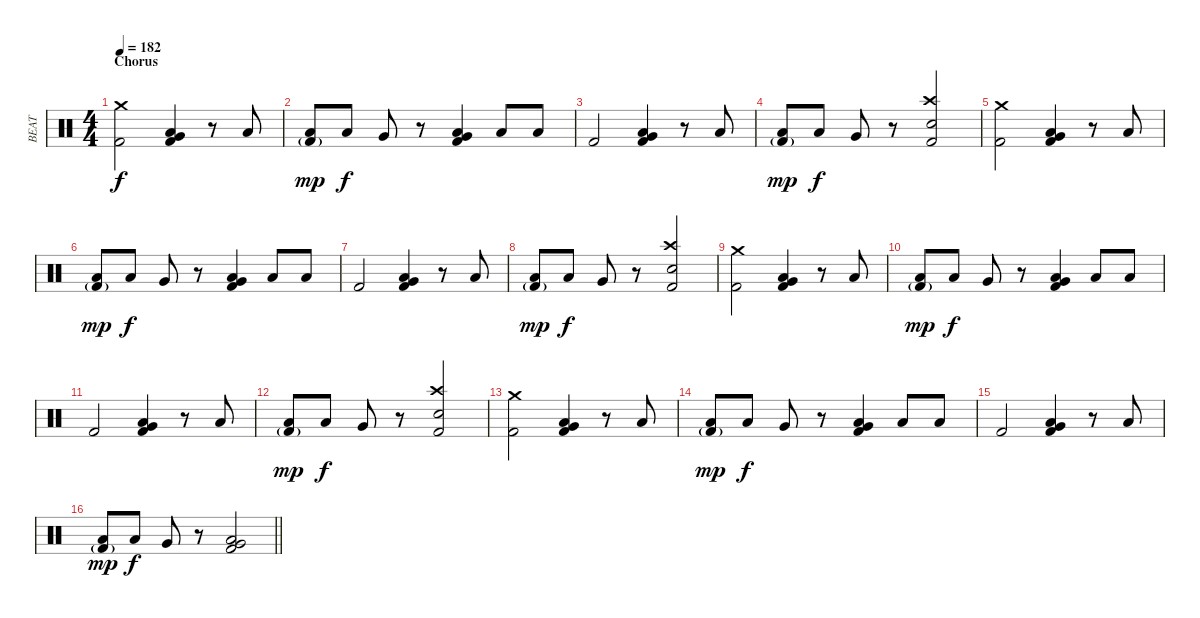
\track ("BEAT" "BEAT") {instrument percussion}
\staff {score}
\articulation defaults
\ts (4 4)
\section ("" "Chorus")
\tempo 182
\clef neutral
\ks c
("Crash medium (hit)" "Kick (hit) 2").2{dy f} ("Low Tom (hit)" "Very Low Tom (hit)" "Kick (hit) 2").4 r.8 "Low Tom (hit)".8 |
("Low Tom (hit)" "Kick (hit) 2"{g}).8{dy mp} "Low Tom (hit)".8{dy f} "Very Low Tom (hit)".8 r.8 ("Low Tom (hit)" "Very Low Tom (hit)" "Kick (hit) 2").4 "Low Tom (hit)".8 "Low Tom (hit)".8 |
"Kick (hit) 2".2 ("Low Tom (hit)" "Very Low Tom (hit)" "Kick (hit) 2").4 r.8 "Low Tom (hit)".8 |
("Low Tom (hit)" "Kick (hit) 2"{g}).8{dy mp} "Low Tom (hit)".8{dy f} "Very Low Tom (hit)".8 r.8 ("Crash high (hit)" "Electric Snare (hit)" "Kick (hit) 2").2 |
("Crash medium (hit)" "Kick (hit) 2").2 ("Low Tom (hit)" "Very Low Tom (hit)" "Kick (hit) 2").4 r.8 "Low Tom (hit)".8 |
("Low Tom (hit)" "Kick (hit) 2"{g}).8{dy mp} "Low Tom (hit)".8{dy f} "Very Low Tom (hit)".8 r.8 ("Low Tom (hit)" "Very Low Tom (hit)" "Kick (hit) 2").4 "Low Tom (hit)".8 "Low Tom (hit)".8 |
"Kick (hit) 2".2 ("Low Tom (hit)" "Very Low Tom (hit)" "Kick (hit) 2").4 r.8 "Low Tom (hit)".8 |
("Low Tom (hit)" "Kick (hit) 2"{g}).8{dy mp} "Low Tom (hit)".8{dy f} "Very Low Tom (hit)".8 r.8 ("Crash high (hit)" "Electric Snare (hit)" "Kick (hit) 2").2 |
("Crash medium (hit)" "Kick (hit) 2").2 ("Low Tom (hit)" "Very Low Tom (hit)" "Kick (hit) 2").4 r.8 "Low Tom (hit)".8 |
("Low Tom (hit)" "Kick (hit) 2"{g}).8{dy mp} "Low Tom (hit)".8{dy f} "Very Low Tom (hit)".8 r.8 ("Low Tom (hit)" "Very Low Tom (hit)" "Kick (hit) 2").4 "Low Tom (hit)".8 "Low Tom (hit)".8 |
"Kick (hit) 2".2 ("Low Tom (hit)" "Very Low Tom (hit)" "Kick (hit) 2").4 r.8 "Low Tom (hit)".8 |
("Low Tom (hit)" "Kick (hit) 2"{g}).8{dy mp} "Low Tom (hit)".8{dy f} "Very Low Tom (hit)".8 r.8 ("Crash high (hit)" "Electric Snare (hit)" "Kick (hit) 2").2 |
("Crash medium (hit)" "Kick (hit) 2").2 ("Low Tom (hit)" "Very Low Tom (hit)" "Kick (hit) 2").4 r.8 "Low Tom (hit)".8 |
("Low Tom (hit)" "Kick (hit) 2"{g}).8{dy mp} "Low Tom (hit)".8{dy f} "Very Low Tom (hit)".8 r.8 ("Low Tom (hit)" "Very Low Tom (hit)" "Kick (hit) 2").4 "Low Tom (hit)".8 "Low Tom (hit)".8 |
"Kick (hit) 2".2 ("Low Tom (hit)" "Very Low Tom (hit)" "Kick (hit) 2").4 r.8 "Low Tom (hit)".8 |
\barLineRight lightlight
("Low Tom (hit)" "Kick (hit) 2"{g}).8{dy mp} "Low Tom (hit)".8{dy f} "Very Low Tom (hit)".8 r.8 ("Low Floor Tom (hit)" "Very Low Tom (hit)" "Kick (hit) 2").2
